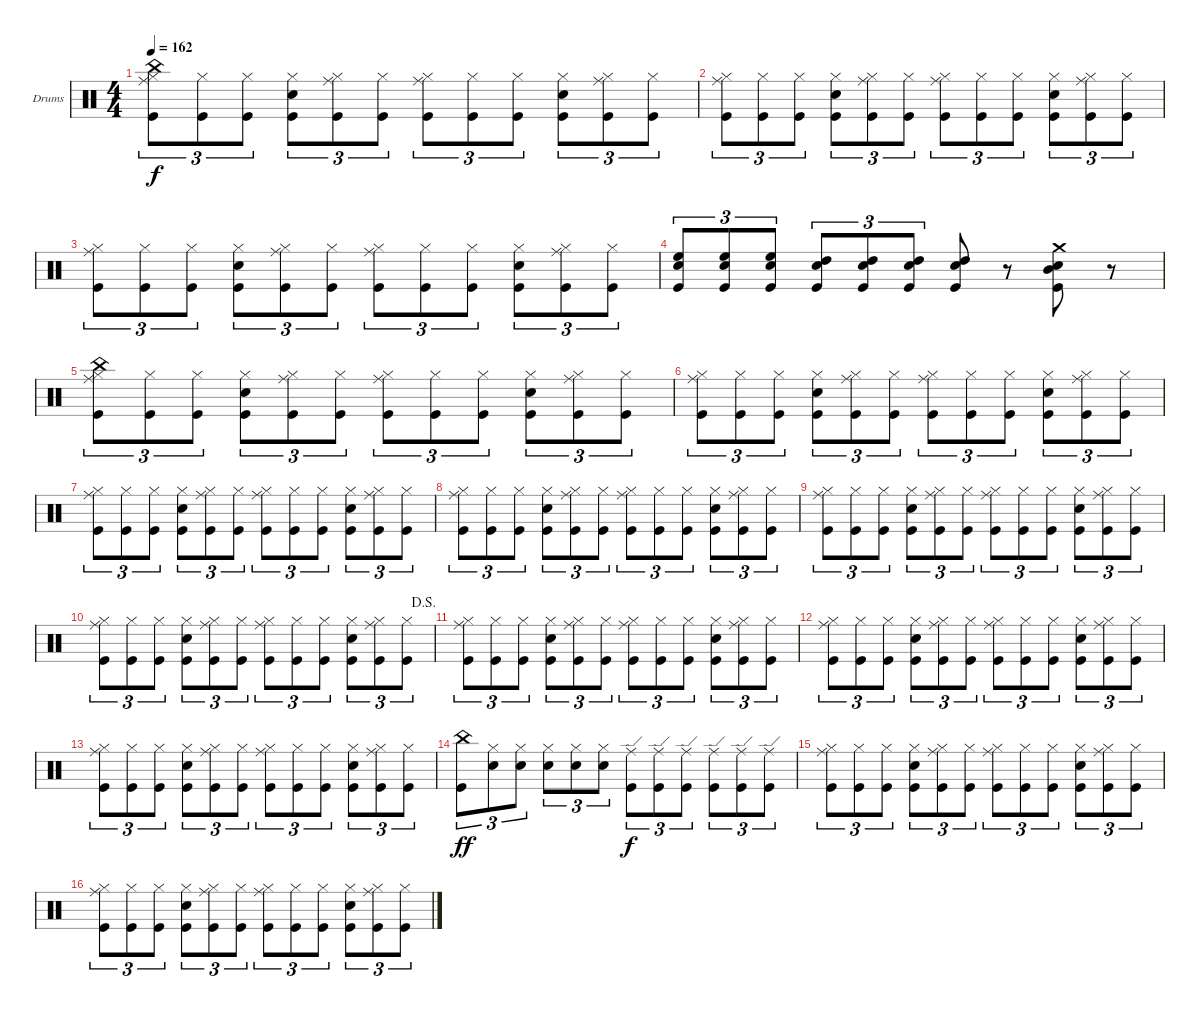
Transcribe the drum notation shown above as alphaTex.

\bracketExtendMode groupsimilarinstruments
\firstSystemTrackNameOrientation horizontal
\otherSystemsTrackNameOrientation horizontal
\track ("Drumkit" "Drums") {instrument percussion}
\staff {score}
\articulation defaults
\ts (4 4)
\tempo 162
\clef neutral
\ks c
("Kick (hit)" "Ride (middle)" "China (hit)" "Hi-Hat (closed)").8{tu (3 2) dy f} ("Kick (hit)" "Hi-Hat (closed)").8{tu (3 2)} ("Kick (hit)" "Hi-Hat (closed)").8{tu (3 2)} ("Kick (hit)" "Snare (hit) 2" "Hi-Hat (closed)").8{tu (3 2)} ("Kick (hit)" "Ride (middle)" "Hi-Hat (closed)").8{tu (3 2)} ("Kick (hit)" "Hi-Hat (closed)").8{tu (3 2)} ("Kick (hit)" "Ride (middle)" "Hi-Hat (closed)").8{tu (3 2)} ("Kick (hit)" "Hi-Hat (closed)").8{tu (3 2)} ("Kick (hit)" "Hi-Hat (closed)").8{tu (3 2)} ("Kick (hit)" "Snare (hit) 2" "Hi-Hat (closed)").8{tu (3 2)} ("Kick (hit)" "Ride (middle)" "Hi-Hat (closed)").8{tu (3 2)} ("Kick (hit)" "Hi-Hat (closed)").8{tu (3 2)} |
("Kick (hit)" "Ride (middle)" "Hi-Hat (closed)").8{tu (3 2)} ("Kick (hit)" "Hi-Hat (closed)").8{tu (3 2)} ("Kick (hit)" "Hi-Hat (closed)").8{tu (3 2)} ("Kick (hit)" "Snare (hit) 2" "Hi-Hat (closed)").8{tu (3 2)} ("Kick (hit)" "Ride (middle)" "Hi-Hat (closed)").8{tu (3 2)} ("Kick (hit)" "Hi-Hat (closed)").8{tu (3 2)} ("Kick (hit)" "Ride (middle)" "Hi-Hat (closed)").8{tu (3 2)} ("Kick (hit)" "Hi-Hat (closed)").8{tu (3 2)} ("Kick (hit)" "Hi-Hat (closed)").8{tu (3 2)} ("Kick (hit)" "Snare (hit) 2" "Hi-Hat (closed)").8{tu (3 2)} ("Kick (hit)" "Ride (middle)" "Hi-Hat (closed)").8{tu (3 2)} ("Kick (hit)" "Hi-Hat (closed)").8{tu (3 2)} |
("Kick (hit)" "Ride (middle)" "Hi-Hat (closed)").8{tu (3 2)} ("Kick (hit)" "Hi-Hat (closed)").8{tu (3 2)} ("Kick (hit)" "Hi-Hat (closed)").8{tu (3 2)} ("Kick (hit)" "Snare (hit) 2" "Hi-Hat (closed)").8{tu (3 2)} ("Kick (hit)" "Ride (middle)" "Hi-Hat (closed)").8{tu (3 2)} ("Kick (hit)" "Hi-Hat (closed)").8{tu (3 2)} ("Kick (hit)" "Ride (middle)" "Hi-Hat (closed)").8{tu (3 2)} ("Kick (hit)" "Hi-Hat (closed)").8{tu (3 2)} ("Kick (hit)" "Hi-Hat (closed)").8{tu (3 2)} ("Kick (hit)" "Snare (hit) 2" "Hi-Hat (closed)").8{tu (3 2)} ("Kick (hit)" "Ride (middle)" "Hi-Hat (closed)").8{tu (3 2)} ("Kick (hit)" "Hi-Hat (closed)").8{tu (3 2)} |
("Kick (hit)" "Snare (hit) 2" "High Floor Tom (hit)").8{tu (3 2)} ("Kick (hit)" "Snare (hit) 2" "High Floor Tom (hit)").8{tu (3 2)} ("Kick (hit)" "Snare (hit) 2" "High Floor Tom (hit)").8{tu (3 2)} ("Kick (hit)" "Snare (hit) 2" "High Tom (hit)").8{tu (3 2)} ("Kick (hit)" "Snare (hit) 2" "High Tom (hit)").8{tu (3 2)} ("Kick (hit)" "Snare (hit) 2" "High Tom (hit)").8{tu (3 2)} ("Kick (hit)" "Snare (hit) 2" "High Tom (hit)").8 r.8 ("Kick (hit)" "Snare (hit) 2" "Mid Tom (hit)" "Crash medium (hit)").8 r.8 |
("Kick (hit)" "Ride (middle)" "China (hit)" "Hi-Hat (closed)").8{tu (3 2)} ("Kick (hit)" "Hi-Hat (closed)").8{tu (3 2)} ("Kick (hit)" "Hi-Hat (closed)").8{tu (3 2)} ("Kick (hit)" "Snare (hit) 2" "Hi-Hat (closed)").8{tu (3 2)} ("Kick (hit)" "Ride (middle)" "Hi-Hat (closed)").8{tu (3 2)} ("Kick (hit)" "Hi-Hat (closed)").8{tu (3 2)} ("Kick (hit)" "Ride (middle)" "Hi-Hat (closed)").8{tu (3 2)} ("Kick (hit)" "Hi-Hat (closed)").8{tu (3 2)} ("Kick (hit)" "Hi-Hat (closed)").8{tu (3 2)} ("Kick (hit)" "Snare (hit) 2" "Hi-Hat (closed)").8{tu (3 2)} ("Kick (hit)" "Ride (middle)" "Hi-Hat (closed)").8{tu (3 2)} ("Kick (hit)" "Hi-Hat (closed)").8{tu (3 2)} |
("Kick (hit)" "Ride (middle)" "Hi-Hat (closed)").8{tu (3 2)} ("Kick (hit)" "Hi-Hat (closed)").8{tu (3 2)} ("Kick (hit)" "Hi-Hat (closed)").8{tu (3 2)} ("Kick (hit)" "Snare (hit) 2" "Hi-Hat (closed)").8{tu (3 2)} ("Kick (hit)" "Ride (middle)" "Hi-Hat (closed)").8{tu (3 2)} ("Kick (hit)" "Hi-Hat (closed)").8{tu (3 2)} ("Kick (hit)" "Ride (middle)" "Hi-Hat (closed)").8{tu (3 2)} ("Kick (hit)" "Hi-Hat (closed)").8{tu (3 2)} ("Kick (hit)" "Hi-Hat (closed)").8{tu (3 2)} ("Kick (hit)" "Snare (hit) 2" "Hi-Hat (closed)").8{tu (3 2)} ("Kick (hit)" "Ride (middle)" "Hi-Hat (closed)").8{tu (3 2)} ("Kick (hit)" "Hi-Hat (closed)").8{tu (3 2)} |
("Kick (hit)" "Ride (middle)" "Hi-Hat (closed)").8{tu (3 2)} ("Kick (hit)" "Hi-Hat (closed)").8{tu (3 2)} ("Kick (hit)" "Hi-Hat (closed)").8{tu (3 2)} ("Kick (hit)" "Snare (hit) 2" "Hi-Hat (closed)").8{tu (3 2)} ("Kick (hit)" "Ride (middle)" "Hi-Hat (closed)").8{tu (3 2)} ("Kick (hit)" "Hi-Hat (closed)").8{tu (3 2)} ("Kick (hit)" "Ride (middle)" "Hi-Hat (closed)").8{tu (3 2)} ("Kick (hit)" "Hi-Hat (closed)").8{tu (3 2)} ("Kick (hit)" "Hi-Hat (closed)").8{tu (3 2)} ("Kick (hit)" "Snare (hit) 2" "Hi-Hat (closed)").8{tu (3 2)} ("Kick (hit)" "Ride (middle)" "Hi-Hat (closed)").8{tu (3 2)} ("Kick (hit)" "Hi-Hat (closed)").8{tu (3 2)} |
("Kick (hit)" "Ride (middle)" "Hi-Hat (closed)").8{tu (3 2)} ("Kick (hit)" "Hi-Hat (closed)").8{tu (3 2)} ("Kick (hit)" "Hi-Hat (closed)").8{tu (3 2)} ("Kick (hit)" "Snare (hit) 2" "Hi-Hat (closed)").8{tu (3 2)} ("Kick (hit)" "Ride (middle)" "Hi-Hat (closed)").8{tu (3 2)} ("Kick (hit)" "Hi-Hat (closed)").8{tu (3 2)} ("Kick (hit)" "Ride (middle)" "Hi-Hat (closed)").8{tu (3 2)} ("Kick (hit)" "Hi-Hat (closed)").8{tu (3 2)} ("Kick (hit)" "Hi-Hat (closed)").8{tu (3 2)} ("Kick (hit)" "Snare (hit) 2" "Hi-Hat (closed)").8{tu (3 2)} ("Kick (hit)" "Ride (middle)" "Hi-Hat (closed)").8{tu (3 2)} ("Kick (hit)" "Hi-Hat (closed)").8{tu (3 2)} |
("Kick (hit)" "Ride (middle)" "Hi-Hat (closed)").8{tu (3 2)} ("Kick (hit)" "Hi-Hat (closed)").8{tu (3 2)} ("Kick (hit)" "Hi-Hat (closed)").8{tu (3 2)} ("Kick (hit)" "Snare (hit) 2" "Hi-Hat (closed)").8{tu (3 2)} ("Kick (hit)" "Ride (middle)" "Hi-Hat (closed)").8{tu (3 2)} ("Kick (hit)" "Hi-Hat (closed)").8{tu (3 2)} ("Kick (hit)" "Ride (middle)" "Hi-Hat (closed)").8{tu (3 2)} ("Kick (hit)" "Hi-Hat (closed)").8{tu (3 2)} ("Kick (hit)" "Hi-Hat (closed)").8{tu (3 2)} ("Kick (hit)" "Snare (hit) 2" "Hi-Hat (closed)").8{tu (3 2)} ("Kick (hit)" "Ride (middle)" "Hi-Hat (closed)").8{tu (3 2)} ("Kick (hit)" "Hi-Hat (closed)").8{tu (3 2)} |
\jump dalsegno
("Kick (hit)" "Ride (middle)" "Hi-Hat (closed)").8{tu (3 2)} ("Kick (hit)" "Hi-Hat (closed)").8{tu (3 2)} ("Kick (hit)" "Hi-Hat (closed)").8{tu (3 2)} ("Kick (hit)" "Snare (hit) 2" "Hi-Hat (closed)").8{tu (3 2)} ("Kick (hit)" "Ride (middle)" "Hi-Hat (closed)").8{tu (3 2)} ("Kick (hit)" "Hi-Hat (closed)").8{tu (3 2)} ("Kick (hit)" "Ride (middle)" "Hi-Hat (closed)").8{tu (3 2)} ("Kick (hit)" "Hi-Hat (closed)").8{tu (3 2)} ("Kick (hit)" "Hi-Hat (closed)").8{tu (3 2)} ("Kick (hit)" "Snare (hit) 2" "Hi-Hat (closed)").8{tu (3 2)} ("Kick (hit)" "Ride (middle)" "Hi-Hat (closed)").8{tu (3 2)} ("Kick (hit)" "Hi-Hat (closed)").8{tu (3 2)} |
("Kick (hit)" "Ride (middle)" "Hi-Hat (closed)").8{tu (3 2)} ("Kick (hit)" "Hi-Hat (closed)").8{tu (3 2)} ("Kick (hit)" "Hi-Hat (closed)").8{tu (3 2)} ("Kick (hit)" "Snare (hit) 2" "Hi-Hat (closed)").8{tu (3 2)} ("Kick (hit)" "Ride (middle)" "Hi-Hat (closed)").8{tu (3 2)} ("Kick (hit)" "Hi-Hat (closed)").8{tu (3 2)} ("Kick (hit)" "Ride (middle)" "Hi-Hat (closed)").8{tu (3 2)} ("Kick (hit)" "Hi-Hat (closed)").8{tu (3 2)} ("Kick (hit)" "Hi-Hat (closed)").8{tu (3 2)} ("Kick (hit)" "Snare (hit) 2" "Hi-Hat (closed)").8{tu (3 2)} ("Kick (hit)" "Ride (middle)" "Hi-Hat (closed)").8{tu (3 2)} ("Kick (hit)" "Hi-Hat (closed)").8{tu (3 2)} |
("Kick (hit)" "Ride (middle)" "Hi-Hat (closed)").8{tu (3 2)} ("Kick (hit)" "Hi-Hat (closed)").8{tu (3 2)} ("Kick (hit)" "Hi-Hat (closed)").8{tu (3 2)} ("Kick (hit)" "Snare (hit) 2" "Hi-Hat (closed)").8{tu (3 2)} ("Kick (hit)" "Ride (middle)" "Hi-Hat (closed)").8{tu (3 2)} ("Kick (hit)" "Hi-Hat (closed)").8{tu (3 2)} ("Kick (hit)" "Ride (middle)" "Hi-Hat (closed)").8{tu (3 2)} ("Kick (hit)" "Hi-Hat (closed)").8{tu (3 2)} ("Kick (hit)" "Hi-Hat (closed)").8{tu (3 2)} ("Kick (hit)" "Snare (hit) 2" "Hi-Hat (closed)").8{tu (3 2)} ("Kick (hit)" "Ride (middle)" "Hi-Hat (closed)").8{tu (3 2)} ("Kick (hit)" "Hi-Hat (closed)").8{tu (3 2)} |
("Kick (hit)" "Ride (middle)" "Hi-Hat (closed)").8{tu (3 2)} ("Kick (hit)" "Hi-Hat (closed)").8{tu (3 2)} ("Kick (hit)" "Hi-Hat (closed)").8{tu (3 2)} ("Kick (hit)" "Snare (hit) 2" "Hi-Hat (closed)").8{tu (3 2)} ("Kick (hit)" "Ride (middle)" "Hi-Hat (closed)").8{tu (3 2)} ("Kick (hit)" "Hi-Hat (closed)").8{tu (3 2)} ("Kick (hit)" "Ride (middle)" "Hi-Hat (closed)").8{tu (3 2)} ("Kick (hit)" "Hi-Hat (closed)").8{tu (3 2)} ("Kick (hit)" "Hi-Hat (closed)").8{tu (3 2)} ("Kick (hit)" "Snare (hit) 2" "Hi-Hat (closed)").8{tu (3 2)} ("Kick (hit)" "Ride (middle)" "Hi-Hat (closed)").8{tu (3 2)} ("Kick (hit)" "Hi-Hat (closed)").8{tu (3 2)} |
("Kick (hit)" "China (hit)").8{tu (3 2) dy ff} ("Snare (hit) 2" "Hi-Hat (closed)").8{tu (3 2)} ("Snare (hit) 2" "Hi-Hat (closed)").8{tu (3 2)} ("Snare (hit) 2" "Hi-Hat (closed)").8{tu (3 2)} ("Snare (hit) 2" "Hi-Hat (closed)").8{tu (3 2)} ("Snare (hit) 2" "Hi-Hat (closed)").8{tu (3 2)} ("Kick (hit)" "Ride (edge)").8{tu (3 2) dy f} ("Kick (hit)" "Ride (edge)").8{tu (3 2)} ("Kick (hit)" "Ride (edge)").8{tu (3 2)} ("Kick (hit)" "Ride (edge)").8{tu (3 2)} ("Kick (hit)" "Ride (edge)").8{tu (3 2)} ("Kick (hit)" "Ride (edge)").8{tu (3 2)} |
("Kick (hit)" "Ride (middle)" "Hi-Hat (closed)").8{tu (3 2)} ("Kick (hit)" "Hi-Hat (closed)").8{tu (3 2)} ("Kick (hit)" "Hi-Hat (closed)").8{tu (3 2)} ("Kick (hit)" "Snare (hit) 2" "Hi-Hat (closed)").8{tu (3 2)} ("Kick (hit)" "Ride (middle)" "Hi-Hat (closed)").8{tu (3 2)} ("Kick (hit)" "Hi-Hat (closed)").8{tu (3 2)} ("Kick (hit)" "Ride (middle)" "Hi-Hat (closed)").8{tu (3 2)} ("Kick (hit)" "Hi-Hat (closed)").8{tu (3 2)} ("Kick (hit)" "Hi-Hat (closed)").8{tu (3 2)} ("Kick (hit)" "Snare (hit) 2" "Hi-Hat (closed)").8{tu (3 2)} ("Kick (hit)" "Ride (middle)" "Hi-Hat (closed)").8{tu (3 2)} ("Kick (hit)" "Hi-Hat (closed)").8{tu (3 2)} |
("Kick (hit)" "Ride (middle)" "Hi-Hat (closed)").8{tu (3 2)} ("Kick (hit)" "Hi-Hat (closed)").8{tu (3 2)} ("Kick (hit)" "Hi-Hat (closed)").8{tu (3 2)} ("Kick (hit)" "Snare (hit) 2" "Hi-Hat (closed)").8{tu (3 2)} ("Kick (hit)" "Ride (middle)" "Hi-Hat (closed)").8{tu (3 2)} ("Kick (hit)" "Hi-Hat (closed)").8{tu (3 2)} ("Kick (hit)" "Ride (middle)" "Hi-Hat (closed)").8{tu (3 2)} ("Kick (hit)" "Hi-Hat (closed)").8{tu (3 2)} ("Kick (hit)" "Hi-Hat (closed)").8{tu (3 2)} ("Kick (hit)" "Snare (hit) 2" "Hi-Hat (closed)").8{tu (3 2)} ("Kick (hit)" "Ride (middle)" "Hi-Hat (closed)").8{tu (3 2)} ("Kick (hit)" "Hi-Hat (closed)").8{tu (3 2)}
